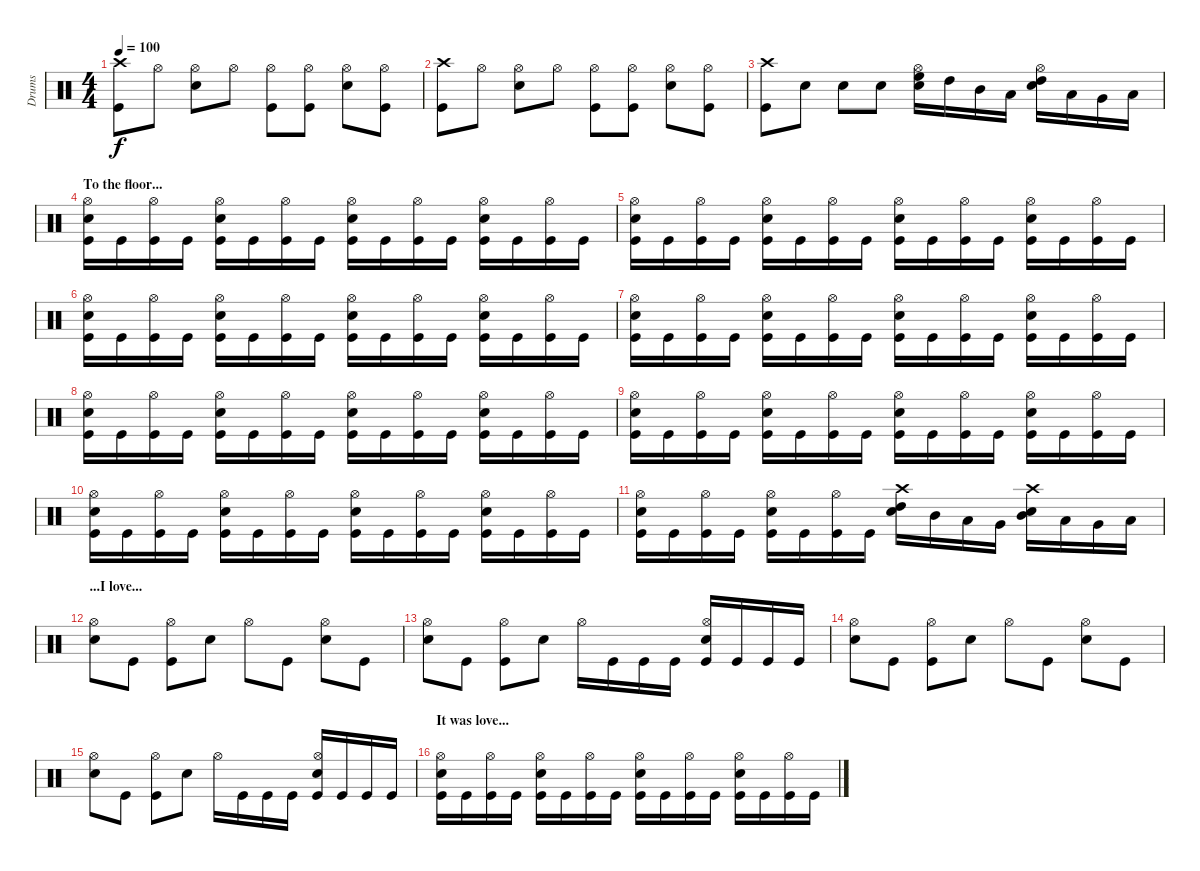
\track ("Drums" "Drums") {instrument percussion}
\staff {score}
\articulation defaults
\ts (4 4)
\tempo 100
\clef neutral
\ks c
("Crash high (hit)" "Kick (hit)").8{dy f} "Hi-Hat (open)".8 ("Hi-Hat (open)" "Snare (hit) 2").8 "Hi-Hat (open)".8 ("Hi-Hat (open)" "Kick (hit)").8 ("Hi-Hat (open)" "Kick (hit)").8 ("Hi-Hat (open)" "Snare (hit) 2").8 ("Hi-Hat (open)" "Kick (hit)").8 |
("Crash high (hit)" "Kick (hit)").8 "Hi-Hat (open)".8 ("Hi-Hat (open)" "Snare (hit) 2").8 "Hi-Hat (open)".8 ("Hi-Hat (open)" "Kick (hit)").8 ("Hi-Hat (open)" "Kick (hit)").8 ("Hi-Hat (open)" "Snare (hit) 2").8 ("Hi-Hat (open)" "Kick (hit)").8 |
("Crash high (hit)" "Kick (hit)").8 "Snare (hit) 2".8 "Snare (hit) 2".8 "Snare (hit) 2".8 ("Hi-Hat (open)" "Snare (hit) 2" "High Floor Tom (hit)").16 "High Tom (hit)".16 "Mid Tom (hit)".16 "Low Tom (hit)".16 ("Hi-Hat (open)" "Snare (hit) 2" "High Tom (hit)").16 "Low Tom (hit)".16 "Very Low Tom (hit)".16 "Low Floor Tom (hit)".16 |
\section ("" "To the floor...")
("Hi-Hat (open)" "Snare (hit) 2" "Kick (hit)").16 "Kick (hit)".16 ("Hi-Hat (open)" "Kick (hit)").16 "Kick (hit)".16 ("Hi-Hat (open)" "Snare (hit) 2" "Kick (hit)").16 "Kick (hit)".16 ("Hi-Hat (open)" "Kick (hit)").16 "Kick (hit)".16 ("Hi-Hat (open)" "Snare (hit) 2" "Kick (hit)").16 "Kick (hit)".16 ("Hi-Hat (open)" "Kick (hit)").16 "Kick (hit)".16 ("Hi-Hat (open)" "Snare (hit) 2" "Kick (hit)").16 "Kick (hit)".16 ("Hi-Hat (open)" "Kick (hit)").16 "Kick (hit)".16 |
("Hi-Hat (open)" "Snare (hit) 2" "Kick (hit)").16 "Kick (hit)".16 ("Hi-Hat (open)" "Kick (hit)").16 "Kick (hit)".16 ("Hi-Hat (open)" "Snare (hit) 2" "Kick (hit)").16 "Kick (hit)".16 ("Hi-Hat (open)" "Kick (hit)").16 "Kick (hit)".16 ("Hi-Hat (open)" "Snare (hit) 2" "Kick (hit)").16 "Kick (hit)".16 ("Hi-Hat (open)" "Kick (hit)").16 "Kick (hit)".16 ("Hi-Hat (open)" "Snare (hit) 2" "Kick (hit)").16 "Kick (hit)".16 ("Hi-Hat (open)" "Kick (hit)").16 "Kick (hit)".16 |
("Hi-Hat (open)" "Snare (hit) 2" "Kick (hit)").16 "Kick (hit)".16 ("Hi-Hat (open)" "Kick (hit)").16 "Kick (hit)".16 ("Hi-Hat (open)" "Snare (hit) 2" "Kick (hit)").16 "Kick (hit)".16 ("Hi-Hat (open)" "Kick (hit)").16 "Kick (hit)".16 ("Hi-Hat (open)" "Snare (hit) 2" "Kick (hit)").16 "Kick (hit)".16 ("Hi-Hat (open)" "Kick (hit)").16 "Kick (hit)".16 ("Hi-Hat (open)" "Snare (hit) 2" "Kick (hit)").16 "Kick (hit)".16 ("Hi-Hat (open)" "Kick (hit)").16 "Kick (hit)".16 |
("Hi-Hat (open)" "Snare (hit) 2" "Kick (hit)").16 "Kick (hit)".16 ("Hi-Hat (open)" "Kick (hit)").16 "Kick (hit)".16 ("Hi-Hat (open)" "Snare (hit) 2" "Kick (hit)").16 "Kick (hit)".16 ("Hi-Hat (open)" "Kick (hit)").16 "Kick (hit)".16 ("Hi-Hat (open)" "Snare (hit) 2" "Kick (hit)").16 "Kick (hit)".16 ("Hi-Hat (open)" "Kick (hit)").16 "Kick (hit)".16 ("Hi-Hat (open)" "Snare (hit) 2" "Kick (hit)").16 "Kick (hit)".16 ("Hi-Hat (open)" "Kick (hit)").16 "Kick (hit)".16 |
("Hi-Hat (open)" "Snare (hit) 2" "Kick (hit)").16 "Kick (hit)".16 ("Hi-Hat (open)" "Kick (hit)").16 "Kick (hit)".16 ("Hi-Hat (open)" "Snare (hit) 2" "Kick (hit)").16 "Kick (hit)".16 ("Hi-Hat (open)" "Kick (hit)").16 "Kick (hit)".16 ("Hi-Hat (open)" "Snare (hit) 2" "Kick (hit)").16 "Kick (hit)".16 ("Hi-Hat (open)" "Kick (hit)").16 "Kick (hit)".16 ("Hi-Hat (open)" "Snare (hit) 2" "Kick (hit)").16 "Kick (hit)".16 ("Hi-Hat (open)" "Kick (hit)").16 "Kick (hit)".16 |
("Hi-Hat (open)" "Snare (hit) 2" "Kick (hit)").16 "Kick (hit)".16 ("Hi-Hat (open)" "Kick (hit)").16 "Kick (hit)".16 ("Hi-Hat (open)" "Snare (hit) 2" "Kick (hit)").16 "Kick (hit)".16 ("Hi-Hat (open)" "Kick (hit)").16 "Kick (hit)".16 ("Hi-Hat (open)" "Snare (hit) 2" "Kick (hit)").16 "Kick (hit)".16 ("Hi-Hat (open)" "Kick (hit)").16 "Kick (hit)".16 ("Hi-Hat (open)" "Snare (hit) 2" "Kick (hit)").16 "Kick (hit)".16 ("Hi-Hat (open)" "Kick (hit)").16 "Kick (hit)".16 |
("Hi-Hat (open)" "Snare (hit) 2" "Kick (hit)").16 "Kick (hit)".16 ("Hi-Hat (open)" "Kick (hit)").16 "Kick (hit)".16 ("Hi-Hat (open)" "Snare (hit) 2" "Kick (hit)").16 "Kick (hit)".16 ("Hi-Hat (open)" "Kick (hit)").16 "Kick (hit)".16 ("Hi-Hat (open)" "Snare (hit) 2" "Kick (hit)").16 "Kick (hit)".16 ("Hi-Hat (open)" "Kick (hit)").16 "Kick (hit)".16 ("Hi-Hat (open)" "Snare (hit) 2" "Kick (hit)").16 "Kick (hit)".16 ("Hi-Hat (open)" "Kick (hit)").16 "Kick (hit)".16 |
("Hi-Hat (open)" "Snare (hit) 2" "Kick (hit)").16 "Kick (hit)".16 ("Hi-Hat (open)" "Kick (hit)").16 "Kick (hit)".16 ("Hi-Hat (open)" "Snare (hit) 2" "Kick (hit)").16 "Kick (hit)".16 ("Hi-Hat (open)" "Kick (hit)").16 "Kick (hit)".16 ("Crash high (hit)" "Snare (hit) 2" "High Tom (hit)").16 "Mid Tom (hit)".16 "Low Tom (hit)".16 "Very Low Tom (hit)".16 ("Crash high (hit)" "Snare (hit) 2" "Mid Tom (hit)").16 "Low Tom (hit)".16 "Very Low Tom (hit)".16 "Low Floor Tom (hit)".16 |
\section ("" "...I love...")
("Hi-Hat (open)" "Snare (hit) 2").8 "Kick (hit)".8 ("Hi-Hat (open)" "Kick (hit)").8 "Snare (hit) 2".8 "Hi-Hat (open)".8 "Kick (hit)".8 ("Hi-Hat (open)" "Snare (hit) 2").8 "Kick (hit)".8 |
("Hi-Hat (open)" "Snare (hit) 2").8 "Kick (hit)".8 ("Hi-Hat (open)" "Kick (hit)").8 "Snare (hit) 2".8 "Hi-Hat (open)".16 "Kick (hit)".16 "Kick (hit)".16 "Kick (hit)".16 ("Hi-Hat (open)" "Snare (hit) 2" "Kick (hit)").16 "Kick (hit)".16 "Kick (hit)".16 "Kick (hit)".16 |
("Hi-Hat (open)" "Snare (hit) 2").8 "Kick (hit)".8 ("Hi-Hat (open)" "Kick (hit)").8 "Snare (hit) 2".8 "Hi-Hat (open)".8 "Kick (hit)".8 ("Hi-Hat (open)" "Snare (hit) 2").8 "Kick (hit)".8 |
("Hi-Hat (open)" "Snare (hit) 2").8 "Kick (hit)".8 ("Hi-Hat (open)" "Kick (hit)").8 "Snare (hit) 2".8 "Hi-Hat (open)".16 "Kick (hit)".16 "Kick (hit)".16 "Kick (hit)".16 ("Hi-Hat (open)" "Snare (hit) 2" "Kick (hit)").16 "Kick (hit)".16 "Kick (hit)".16 "Kick (hit)".16 |
\section ("" "It was love...")
("Hi-Hat (open)" "Snare (hit) 2" "Kick (hit)").16 "Kick (hit)".16 ("Hi-Hat (open)" "Kick (hit)").16 "Kick (hit)".16 ("Hi-Hat (open)" "Snare (hit) 2" "Kick (hit)").16 "Kick (hit)".16 ("Hi-Hat (open)" "Kick (hit)").16 "Kick (hit)".16 ("Hi-Hat (open)" "Snare (hit) 2" "Kick (hit)").16 "Kick (hit)".16 ("Hi-Hat (open)" "Kick (hit)").16 "Kick (hit)".16 ("Hi-Hat (open)" "Snare (hit) 2" "Kick (hit)").16 "Kick (hit)".16 ("Hi-Hat (open)" "Kick (hit)").16 "Kick (hit)".16
